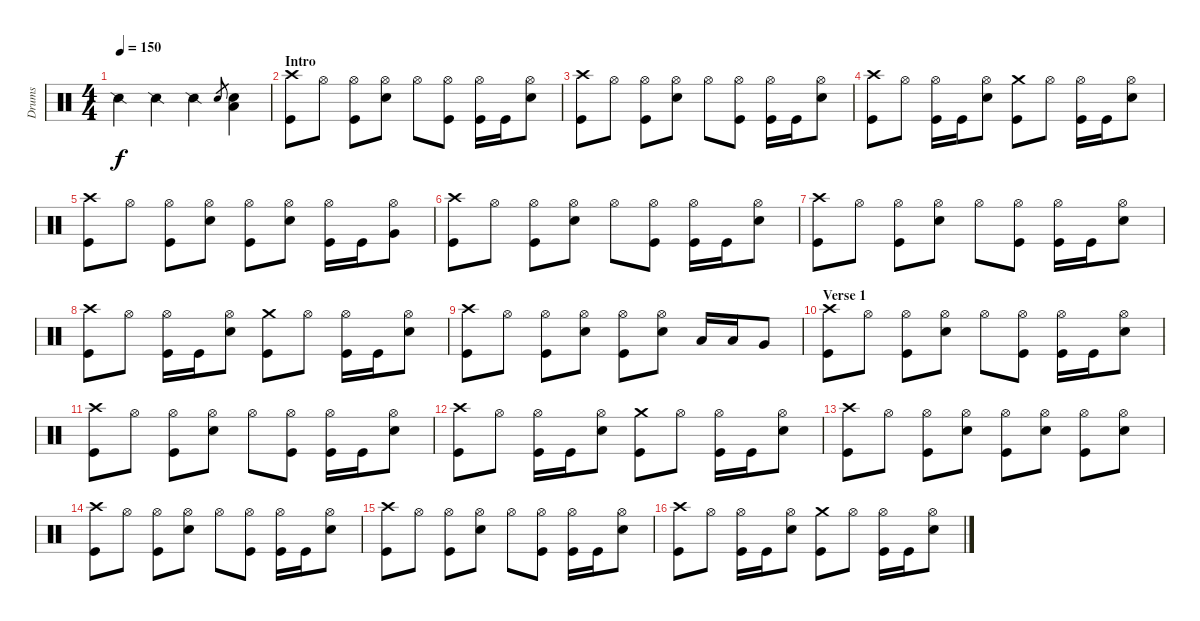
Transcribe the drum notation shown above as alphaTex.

\track ("Drums" "Drums") {instrument percussion}
\staff {score}
\articulation defaults
\ts (4 4)
\tempo 150
\clef neutral
\ks c "Snare (side stick) 2".4{dy f} "Snare (side stick) 2".4 "Snare (side stick) 2".4 "Electric Snare (hit)".8{gr}
("Low Tom (hit)" "Electric Snare (hit)").4 |
\section ("" "Intro")
("Crash high (hit)" "Kick (hit)").8 "Hi-Hat (open)".8 ("Hi-Hat (open)" "Kick (hit)").8 ("Hi-Hat (open)" "Electric Snare (hit)").8 "Hi-Hat (open)".8 ("Hi-Hat (open)" "Kick (hit)").8 ("Hi-Hat (open)" "Kick (hit)").16 "Kick (hit)".16 ("Hi-Hat (open)" "Electric Snare (hit)").8 |
("Crash high (hit)" "Kick (hit)").8 "Hi-Hat (open)".8 ("Hi-Hat (open)" "Kick (hit)").8 ("Hi-Hat (open)" "Electric Snare (hit)").8 "Hi-Hat (open)".8 ("Hi-Hat (open)" "Kick (hit)").8 ("Hi-Hat (open)" "Kick (hit)").16 "Kick (hit)".16 ("Hi-Hat (open)" "Electric Snare (hit)").8 |
("Crash high (hit)" "Kick (hit)").8 "Hi-Hat (open)".8 ("Hi-Hat (open)" "Kick (hit)").16 "Kick (hit)".16 ("Hi-Hat (open)" "Electric Snare (hit)").8 ("Crash medium (hit)" "Kick (hit)").8 "Hi-Hat (open)".8 ("Hi-Hat (open)" "Kick (hit)").16 "Kick (hit)".16 ("Hi-Hat (open)" "Electric Snare (hit)").8 |
("Crash high (hit)" "Kick (hit)").8 "Hi-Hat (open)".8 ("Hi-Hat (open)" "Kick (hit)").8 ("Hi-Hat (open)" "Electric Snare (hit)").8 ("Hi-Hat (open)" "Kick (hit)").8 ("Hi-Hat (open)" "Electric Snare (hit)").8 ("Hi-Hat (open)" "Kick (hit)").16 "Kick (hit)".16 ("Hi-Hat (open)" "Very Low Tom (hit)").8 |
("Crash high (hit)" "Kick (hit)").8 "Hi-Hat (open)".8 ("Hi-Hat (open)" "Kick (hit)").8 ("Hi-Hat (open)" "Electric Snare (hit)").8 "Hi-Hat (open)".8 ("Hi-Hat (open)" "Kick (hit)").8 ("Hi-Hat (open)" "Kick (hit)").16 "Kick (hit)".16 ("Hi-Hat (open)" "Electric Snare (hit)").8 |
("Crash high (hit)" "Kick (hit)").8 "Hi-Hat (open)".8 ("Hi-Hat (open)" "Kick (hit)").8 ("Hi-Hat (open)" "Electric Snare (hit)").8 "Hi-Hat (open)".8 ("Hi-Hat (open)" "Kick (hit)").8 ("Hi-Hat (open)" "Kick (hit)").16 "Kick (hit)".16 ("Hi-Hat (open)" "Electric Snare (hit)").8 |
("Crash high (hit)" "Kick (hit)").8 "Hi-Hat (open)".8 ("Hi-Hat (open)" "Kick (hit)").16 "Kick (hit)".16 ("Hi-Hat (open)" "Electric Snare (hit)").8 ("Crash medium (hit)" "Kick (hit)").8 "Hi-Hat (open)".8 ("Hi-Hat (open)" "Kick (hit)").16 "Kick (hit)".16 ("Hi-Hat (open)" "Electric Snare (hit)").8 |
("Crash high (hit)" "Kick (hit)").8 "Hi-Hat (open)".8 ("Hi-Hat (open)" "Kick (hit)").8 ("Hi-Hat (open)" "Electric Snare (hit)").8 ("Hi-Hat (open)" "Kick (hit)").8 ("Hi-Hat (open)" "Electric Snare (hit)").8 "Low Tom (hit)".16 "Low Tom (hit)".16 "Very Low Tom (hit)".8 |
\section ("" "Verse 1")
("Crash high (hit)" "Kick (hit)").8 "Hi-Hat (open)".8 ("Hi-Hat (open)" "Kick (hit)").8 ("Hi-Hat (open)" "Electric Snare (hit)").8 "Hi-Hat (open)".8 ("Hi-Hat (open)" "Kick (hit)").8 ("Hi-Hat (open)" "Kick (hit)").16 "Kick (hit)".16 ("Hi-Hat (open)" "Electric Snare (hit)").8 |
("Crash high (hit)" "Kick (hit)").8 "Hi-Hat (open)".8 ("Hi-Hat (open)" "Kick (hit)").8 ("Hi-Hat (open)" "Electric Snare (hit)").8 "Hi-Hat (open)".8 ("Hi-Hat (open)" "Kick (hit)").8 ("Hi-Hat (open)" "Kick (hit)").16 "Kick (hit)".16 ("Hi-Hat (open)" "Electric Snare (hit)").8 |
("Crash high (hit)" "Kick (hit)").8 "Hi-Hat (open)".8 ("Hi-Hat (open)" "Kick (hit)").16 "Kick (hit)".16 ("Hi-Hat (open)" "Electric Snare (hit)").8 ("Crash medium (hit)" "Kick (hit)").8 "Hi-Hat (open)".8 ("Hi-Hat (open)" "Kick (hit)").16 "Kick (hit)".16 ("Hi-Hat (open)" "Electric Snare (hit)").8 |
("Crash high (hit)" "Kick (hit)").8 "Hi-Hat (open)".8 ("Hi-Hat (open)" "Kick (hit)").8 ("Hi-Hat (open)" "Electric Snare (hit)").8 ("Hi-Hat (open)" "Kick (hit)").8 ("Hi-Hat (open)" "Electric Snare (hit)").8 ("Hi-Hat (open)" "Kick (hit)").8 ("Hi-Hat (open)" "Electric Snare (hit)").8 |
("Crash high (hit)" "Kick (hit)").8 "Hi-Hat (open)".8 ("Hi-Hat (open)" "Kick (hit)").8 ("Hi-Hat (open)" "Electric Snare (hit)").8 "Hi-Hat (open)".8 ("Hi-Hat (open)" "Kick (hit)").8 ("Hi-Hat (open)" "Kick (hit)").16 "Kick (hit)".16 ("Hi-Hat (open)" "Electric Snare (hit)").8 |
("Crash high (hit)" "Kick (hit)").8 "Hi-Hat (open)".8 ("Hi-Hat (open)" "Kick (hit)").8 ("Hi-Hat (open)" "Electric Snare (hit)").8 "Hi-Hat (open)".8 ("Hi-Hat (open)" "Kick (hit)").8 ("Hi-Hat (open)" "Kick (hit)").16 "Kick (hit)".16 ("Hi-Hat (open)" "Electric Snare (hit)").8 |
("Crash high (hit)" "Kick (hit)").8 "Hi-Hat (open)".8 ("Hi-Hat (open)" "Kick (hit)").16 "Kick (hit)".16 ("Hi-Hat (open)" "Electric Snare (hit)").8 ("Crash medium (hit)" "Kick (hit)").8 "Hi-Hat (open)".8 ("Hi-Hat (open)" "Kick (hit)").16 "Kick (hit)".16 ("Hi-Hat (open)" "Electric Snare (hit)").8
